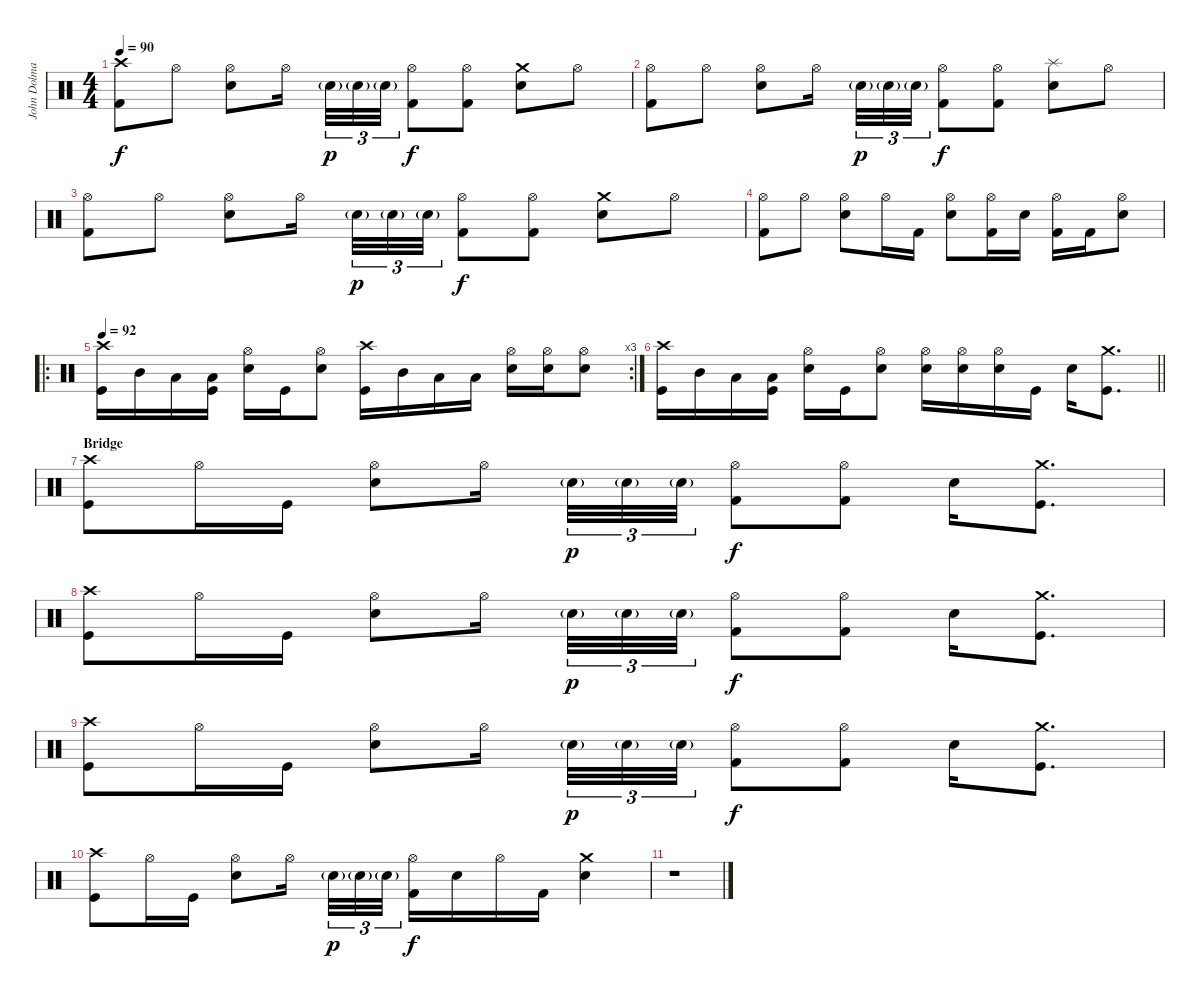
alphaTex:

\track ("John Dolmayan" "John Dolma") {instrument percussion}
\staff {score}
\articulation defaults
\ts (4 4)
\tempo 90
\clef neutral
\ks c
("Crash high (hit)" "Kick (hit) 2").8{dy f} "Hi-Hat (open)".8 ("Hi-Hat (open)" "Snare (hit) 2").8 "Hi-Hat (open)".16{beam splitsecondary} "Snare (hit) 2"{g}.32{tu (3 2) dy p} "Snare (hit) 2"{g}.32{tu (3 2)} "Snare (hit) 2"{g}.32{tu (3 2)} ("Hi-Hat (open)" "Kick (hit) 2").8{dy f} ("Hi-Hat (open)" "Kick (hit) 2").8 ("Crash medium (hit)" "Snare (hit) 2").8 "Hi-Hat (open)".8 |
("Hi-Hat (open)" "Kick (hit) 2").8 "Hi-Hat (open)".8 ("Hi-Hat (open)" "Snare (hit) 2").8 "Hi-Hat (open)".16{beam splitsecondary} "Snare (hit) 2"{g}.32{tu (3 2) dy p} "Snare (hit) 2"{g}.32{tu (3 2)} "Snare (hit) 2"{g}.32{tu (3 2)} ("Hi-Hat (open)" "Kick (hit) 2").8{dy f} ("Hi-Hat (open)" "Kick (hit) 2").8 ("Splash (hit)" "Snare (hit) 2").8 "Hi-Hat (open)".8 |
("Hi-Hat (open)" "Kick (hit) 2").8 "Hi-Hat (open)".8 ("Hi-Hat (open)" "Snare (hit) 2").8 "Hi-Hat (open)".16{beam splitsecondary} "Snare (hit) 2"{g}.32{tu (3 2) dy p} "Snare (hit) 2"{g}.32{tu (3 2)} "Snare (hit) 2"{g}.32{tu (3 2)} ("Hi-Hat (open)" "Kick (hit) 2").8{dy f} ("Hi-Hat (open)" "Kick (hit) 2").8 ("Crash medium (hit)" "Snare (hit) 2").8 "Hi-Hat (open)".8 |
("Hi-Hat (open)" "Kick (hit) 2").8 "Hi-Hat (open)".8 ("Hi-Hat (open)" "Snare (hit) 2").8 "Hi-Hat (open)".16 "Kick (hit) 2".16 ("Hi-Hat (open)" "Snare (hit) 2").8 ("Hi-Hat (open)" "Kick (hit) 2").16 "Snare (hit) 2".16 ("Hi-Hat (open)" "Kick (hit) 2").16 "Kick (hit) 2".16 ("Hi-Hat (open)" "Snare (hit) 2").8 |
\ro
\rc 3
\tempo 92
("Crash high (hit)" "Kick (hit)").16 "Mid Tom (hit)".16 "Low Tom (hit)".16 ("Low Floor Tom (hit)" "Kick (hit)").16 ("Hi-Hat (open)" "Snare (hit) 2").16 "Kick (hit)".16 ("Hi-Hat (open)" "Snare (hit) 2").8 ("Crash high (hit)" "Kick (hit)").16 "Mid Tom (hit)".16 "Low Tom (hit)".16 "Low Floor Tom (hit)".16 ("Hi-Hat (open)" "Snare (hit) 2").16 ("Hi-Hat (open)" "Snare (hit) 2").16 ("Hi-Hat (open)" "Snare (hit) 2").8 |
\barLineRight lightlight
("Crash high (hit)" "Kick (hit)").16 "Mid Tom (hit)".16 "Low Tom (hit)".16 ("Low Floor Tom (hit)" "Kick (hit)").16 ("Hi-Hat (open)" "Snare (hit) 2").16 "Kick (hit)".16 ("Hi-Hat (open)" "Snare (hit) 2").8 ("Hi-Hat (open)" "Snare (hit) 2").16 ("Hi-Hat (open)" "Snare (hit) 2").16 ("Hi-Hat (open)" "Snare (hit) 2").16 "Kick (hit)".16 "Snare (hit) 2".16 ("Crash medium (hit)" "Kick (hit)").8{d} |
\section ("" "Bridge")
("Crash high (hit)" "Kick (hit)").8 "Hi-Hat (open)".16 "Kick (hit)".16 ("Hi-Hat (open)" "Snare (hit) 2").8 "Hi-Hat (open)".16{beam splitsecondary} "Snare (hit) 2"{g}.32{tu (3 2) dy p} "Snare (hit) 2"{g}.32{tu (3 2)} "Snare (hit) 2"{g}.32{tu (3 2)} ("Hi-Hat (open)" "Kick (hit) 2").8{dy f} ("Hi-Hat (open)" "Kick (hit) 2").8 "Snare (hit) 2".16 ("Crash medium (hit)" "Kick (hit)").8{d} |
("Crash high (hit)" "Kick (hit)").8 "Hi-Hat (open)".16 "Kick (hit)".16 ("Hi-Hat (open)" "Snare (hit) 2").8 "Hi-Hat (open)".16{beam splitsecondary} "Snare (hit) 2"{g}.32{tu (3 2) dy p} "Snare (hit) 2"{g}.32{tu (3 2)} "Snare (hit) 2"{g}.32{tu (3 2)} ("Hi-Hat (open)" "Kick (hit) 2").8{dy f} ("Hi-Hat (open)" "Kick (hit) 2").8 "Snare (hit) 2".16 ("Crash medium (hit)" "Kick (hit)").8{d} |
("Crash high (hit)" "Kick (hit)").8 "Hi-Hat (open)".16 "Kick (hit)".16 ("Hi-Hat (open)" "Snare (hit) 2").8 "Hi-Hat (open)".16{beam splitsecondary} "Snare (hit) 2"{g}.32{tu (3 2) dy p} "Snare (hit) 2"{g}.32{tu (3 2)} "Snare (hit) 2"{g}.32{tu (3 2)} ("Hi-Hat (open)" "Kick (hit) 2").8{dy f} ("Hi-Hat (open)" "Kick (hit) 2").8 "Snare (hit) 2".16 ("Crash medium (hit)" "Kick (hit)").8{d} |
("Crash high (hit)" "Kick (hit)").8 "Hi-Hat (open)".16 "Kick (hit)".16 ("Hi-Hat (open)" "Snare (hit) 2").8 "Hi-Hat (open)".16{beam splitsecondary} "Snare (hit) 2"{g}.32{tu (3 2) dy p} "Snare (hit) 2"{g}.32{tu (3 2)} "Snare (hit) 2"{g}.32{tu (3 2)} ("Hi-Hat (open)" "Kick (hit) 2").16{dy f} "Snare (hit) 2".16 "Hi-Hat (open)".16 "Kick (hit) 2".16 ("Crash medium (hit)" "Snare (hit) 2").4 |
r.1
